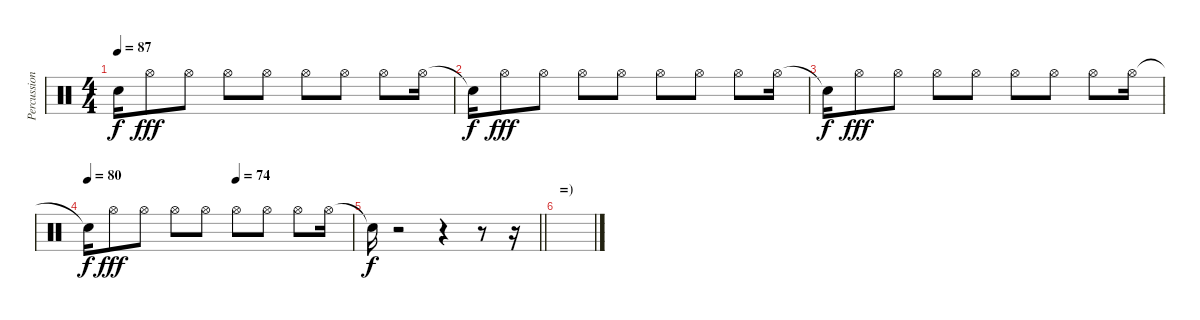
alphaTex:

\track ("Percussion" "Percussion") {instrument percussion}
\staff {score}
\articulation defaults
\ts (4 4)
\tempo 87
\clef neutral
\ks c "Snare (hit)"{t}.16{dy f} "Hi-Hat (open)".8{dy fff} "Hi-Hat (open)".8 "Hi-Hat (open)".8 "Hi-Hat (open)".8 "Hi-Hat (open)".8 "Hi-Hat (open)".8 "Hi-Hat (open)".8 "Hi-Hat (open)".16
|
"Snare (hit)"{t}.16{dy f} "Hi-Hat (open)".8{dy fff} "Hi-Hat (open)".8 "Hi-Hat (open)".8 "Hi-Hat (open)".8 "Hi-Hat (open)".8 "Hi-Hat (open)".8 "Hi-Hat (open)".8 "Hi-Hat (open)".16 |
"Snare (hit)"{t}.16{dy f} "Hi-Hat (open)".8{dy fff} "Hi-Hat (open)".8 "Hi-Hat (open)".8 "Hi-Hat (open)".8 "Hi-Hat (open)".8 "Hi-Hat (open)".8 "Hi-Hat (open)".8 "Hi-Hat (open)".16 |
\tempo 80
\tempo (74 0.5625)
"Snare (hit)"{t}.16{dy f} "Hi-Hat (open)".8{dy fff} "Hi-Hat (open)".8 "Hi-Hat (open)".8 "Hi-Hat (open)".8 "Hi-Hat (open)".8 "Hi-Hat (open)".8 "Hi-Hat (open)".8 "Hi-Hat (open)".16 |
\barLineRight lightlight "Snare (hit)"{t}.16{dy f}
r.2 r.4 r.8 r.16 |
\section ("" "=)")
